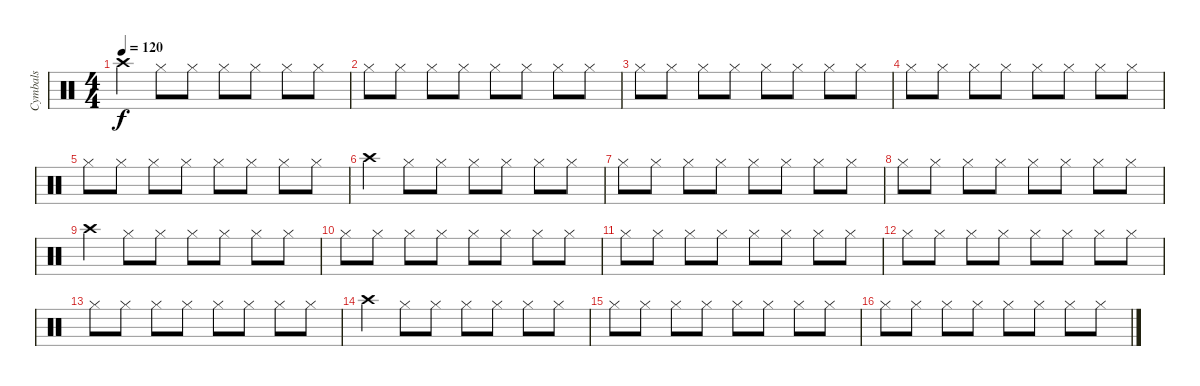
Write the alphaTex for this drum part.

\track ("Cymbals" "Cymbals") {instrument percussion}
\staff {score}
\articulation defaults
\ts (4 4)
\tempo 120
\clef neutral
\ks c "Crash high (hit)".4{dy f} "Hi-Hat (closed)".8 "Hi-Hat (closed)".8 "Hi-Hat (closed)".8 "Hi-Hat (closed)".8 "Hi-Hat (closed)".8 "Hi-Hat (closed)".8
|
"Hi-Hat (closed)".8 "Hi-Hat (closed)".8 "Hi-Hat (closed)".8 "Hi-Hat (closed)".8 "Hi-Hat (closed)".8 "Hi-Hat (closed)".8 "Hi-Hat (closed)".8 "Hi-Hat (closed)".8 |
"Hi-Hat (closed)".8 "Hi-Hat (closed)".8 "Hi-Hat (closed)".8 "Hi-Hat (closed)".8 "Hi-Hat (closed)".8 "Hi-Hat (closed)".8 "Hi-Hat (closed)".8 "Hi-Hat (closed)".8 |
"Hi-Hat (closed)".8 "Hi-Hat (closed)".8 "Hi-Hat (closed)".8 "Hi-Hat (closed)".8 "Hi-Hat (closed)".8 "Hi-Hat (closed)".8 "Hi-Hat (closed)".8 "Hi-Hat (closed)".8 |
"Hi-Hat (closed)".8 "Hi-Hat (closed)".8 "Hi-Hat (closed)".8 "Hi-Hat (closed)".8 "Hi-Hat (closed)".8 "Hi-Hat (closed)".8 "Hi-Hat (closed)".8 "Hi-Hat (closed)".8 |
"Crash high (hit)".4 "Hi-Hat (closed)".8 "Hi-Hat (closed)".8 "Hi-Hat (closed)".8 "Hi-Hat (closed)".8 "Hi-Hat (closed)".8 "Hi-Hat (closed)".8 |
"Hi-Hat (closed)".8 "Hi-Hat (closed)".8 "Hi-Hat (closed)".8 "Hi-Hat (closed)".8 "Hi-Hat (closed)".8 "Hi-Hat (closed)".8 "Hi-Hat (closed)".8 "Hi-Hat (closed)".8 |
"Hi-Hat (closed)".8 "Hi-Hat (closed)".8 "Hi-Hat (closed)".8 "Hi-Hat (closed)".8 "Hi-Hat (closed)".8 "Hi-Hat (closed)".8 "Hi-Hat (closed)".8 "Hi-Hat (closed)".8 |
"Crash high (hit)".4 "Hi-Hat (closed)".8 "Hi-Hat (closed)".8 "Hi-Hat (closed)".8 "Hi-Hat (closed)".8 "Hi-Hat (closed)".8 "Hi-Hat (closed)".8 |
"Hi-Hat (closed)".8 "Hi-Hat (closed)".8 "Hi-Hat (closed)".8 "Hi-Hat (closed)".8 "Hi-Hat (closed)".8 "Hi-Hat (closed)".8 "Hi-Hat (closed)".8 "Hi-Hat (closed)".8 |
"Hi-Hat (closed)".8 "Hi-Hat (closed)".8 "Hi-Hat (closed)".8 "Hi-Hat (closed)".8 "Hi-Hat (closed)".8 "Hi-Hat (closed)".8 "Hi-Hat (closed)".8 "Hi-Hat (closed)".8 |
"Hi-Hat (closed)".8 "Hi-Hat (closed)".8 "Hi-Hat (closed)".8 "Hi-Hat (closed)".8 "Hi-Hat (closed)".8 "Hi-Hat (closed)".8 "Hi-Hat (closed)".8 "Hi-Hat (closed)".8 |
"Hi-Hat (closed)".8 "Hi-Hat (closed)".8 "Hi-Hat (closed)".8 "Hi-Hat (closed)".8 "Hi-Hat (closed)".8 "Hi-Hat (closed)".8 "Hi-Hat (closed)".8 "Hi-Hat (closed)".8 |
"Crash high (hit)".4 "Hi-Hat (closed)".8 "Hi-Hat (closed)".8 "Hi-Hat (closed)".8 "Hi-Hat (closed)".8 "Hi-Hat (closed)".8 "Hi-Hat (closed)".8 |
"Hi-Hat (closed)".8 "Hi-Hat (closed)".8 "Hi-Hat (closed)".8 "Hi-Hat (closed)".8 "Hi-Hat (closed)".8 "Hi-Hat (closed)".8 "Hi-Hat (closed)".8 "Hi-Hat (closed)".8 |
"Hi-Hat (closed)".8 "Hi-Hat (closed)".8 "Hi-Hat (closed)".8 "Hi-Hat (closed)".8 "Hi-Hat (closed)".8 "Hi-Hat (closed)".8 "Hi-Hat (closed)".8 "Hi-Hat (closed)".8
